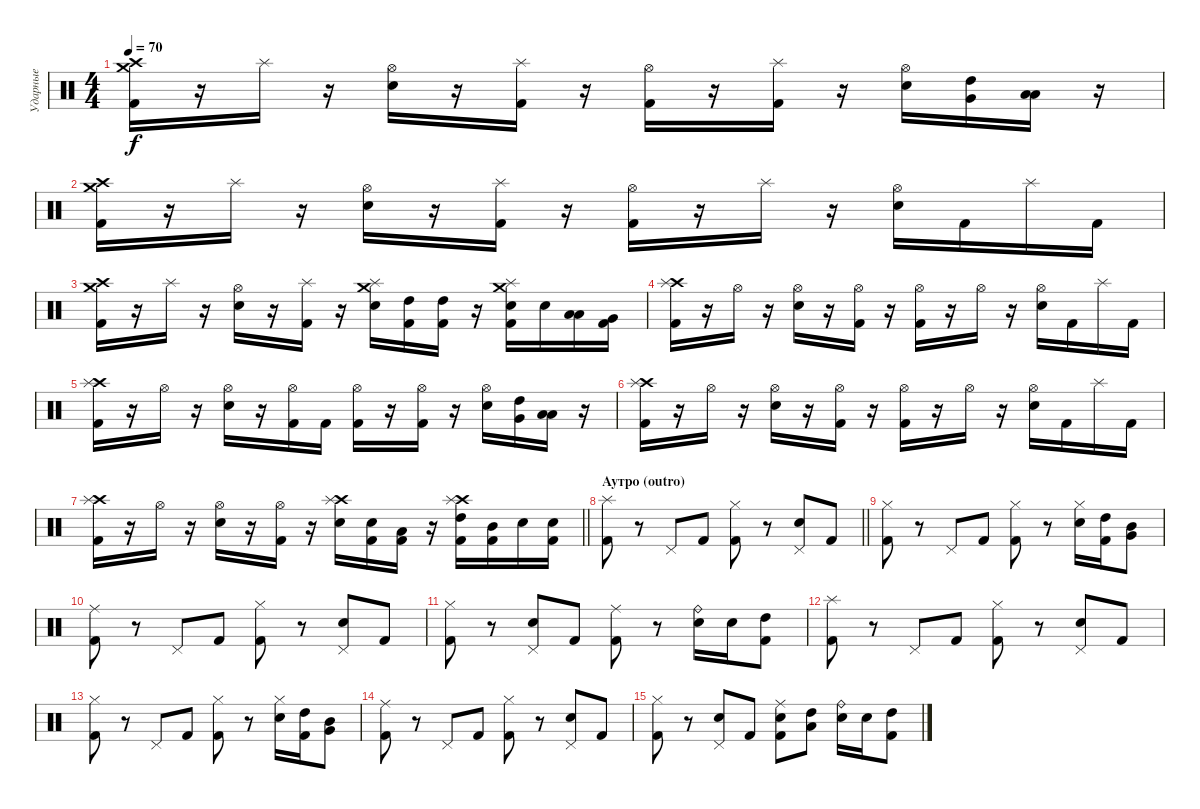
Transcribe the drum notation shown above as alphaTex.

\track ("Ударные" "Ударные") {instrument percussion}
\staff {score}
\articulation defaults
\ts (4 4)
\tempo 70
\clef neutral
\ks c
("Crash high (hit)" "Crash medium (hit)" "Kick (hit) 2").16{dy f} r.16 "Splash (hit)".16 r.16 ("Hi-Hat (open)" "Snare (hit) 2").16 r.16 ("Splash (hit)" "Kick (hit) 2").16 r.16 ("Hi-Hat (open)" "Kick (hit) 2").16 r.16 ("Splash (hit)" "Kick (hit) 2").16 r.16 ("Hi-Hat (open)" "Snare (hit) 2").16 ("High Tom (hit)" "Very Low Tom (hit)").16 ("Low Tom (hit)" "Low Floor Tom (hit)").16 r.16 |
("Crash high (hit)" "Crash medium (hit)" "Kick (hit) 2").16 r.16 "Splash (hit)".16 r.16 ("Hi-Hat (open)" "Snare (hit) 2").16 r.16 ("Splash (hit)" "Kick (hit) 2").16 r.16 ("Hi-Hat (open)" "Kick (hit) 2").16 r.16 "Splash (hit)".16 r.16 ("Hi-Hat (open)" "Snare (hit) 2").16 "Kick (hit) 2".16 "Splash (hit)".16 "Kick (hit) 2".16 |
("Crash high (hit)" "Crash medium (hit)" "Kick (hit) 2").16 r.16 "Splash (hit)".16 r.16 ("Hi-Hat (open)" "Snare (hit) 2").16 r.16 ("Splash (hit)" "Kick (hit) 2").16 r.16 ("Crash medium (hit)" "Splash (hit)" "Snare (hit) 2").16 ("High Tom (hit)" "Kick (hit) 2").16 ("High Tom (hit)" "Kick (hit) 2").16 r.16 ("Crash medium (hit)" "Splash (hit)" "Snare (hit) 2" "Kick (hit) 2").16 "Snare (hit) 2".16 ("Low Tom (hit)" "Low Floor Tom (hit)").16 ("Very Low Tom (hit)" "Kick (hit) 2").16 |
("Crash high (hit)" "Splash (hit)" "Kick (hit) 2").16 r.16 "Hi-Hat (open)".16 r.16 ("Hi-Hat (open)" "Snare (hit) 2").16 r.16 ("Hi-Hat (open)" "Kick (hit) 2").16 r.16 ("Hi-Hat (open)" "Kick (hit) 2").16 r.16 "Hi-Hat (open)".16 r.16 ("Hi-Hat (open)" "Snare (hit) 2").16 "Kick (hit) 2".16 "Splash (hit)".16 "Kick (hit) 2".16 |
("Crash high (hit)" "Splash (hit)" "Kick (hit) 2").16 r.16 "Hi-Hat (open)".16 r.16 ("Hi-Hat (open)" "Snare (hit) 2").16 r.16 ("Hi-Hat (open)" "Kick (hit) 2").16 "Kick (hit) 2".16 ("Hi-Hat (open)" "Kick (hit) 2").16 r.16 ("Hi-Hat (open)" "Kick (hit) 2").16 r.16 ("Hi-Hat (open)" "Snare (hit) 2").16 ("High Tom (hit)" "Very Low Tom (hit)").16 ("Low Tom (hit)" "Low Floor Tom (hit)").16 r.16 |
("Crash high (hit)" "Splash (hit)" "Kick (hit) 2").16 r.16 "Hi-Hat (open)".16 r.16 ("Hi-Hat (open)" "Snare (hit) 2").16 r.16 ("Hi-Hat (open)" "Kick (hit) 2").16 r.16 ("Hi-Hat (open)" "Kick (hit) 2").16 r.16 "Hi-Hat (open)".16 r.16 ("Hi-Hat (open)" "Snare (hit) 2").16 "Kick (hit) 2".16 "Splash (hit)".16 "Kick (hit) 2".16 |
\barLineRight lightlight
("Crash high (hit)" "Splash (hit)" "Kick (hit) 2").16 r.16 "Hi-Hat (open)".16 r.16 ("Hi-Hat (open)" "Snare (hit) 2").16 r.16 ("Hi-Hat (open)" "Kick (hit) 2").16 r.16 ("Crash high (hit)" "Splash (hit)" "Snare (hit) 2").16 ("Snare (hit) 2" "Kick (hit) 2").16 ("Low Tom (hit)" "Kick (hit) 2").16 r.16 ("Crash high (hit)" "Splash (hit)" "High Tom (hit)" "Kick (hit) 2").16 ("Mid Tom (hit)" "Kick (hit) 2").16 "Snare (hit) 2".16 ("Snare (hit) 2" "Kick (hit) 2").16 |
\section ("" "Аутро (outro)")
\barLineRight lightlight
("Splash (hit)" "Kick (hit) 2").8 r.8 "Pedal Hi-Hat (hit)".8 "Kick (hit) 2".8 ("Hi-Hat (closed)" "Kick (hit) 2").8 r.8 ("Pedal Hi-Hat (hit)" "Snare (hit) 2").8 "Kick (hit) 2".8 |
("Hi-Hat (closed)" "Kick (hit) 2").8 r.8 "Pedal Hi-Hat (hit)".8 "Kick (hit) 2".8 ("Hi-Hat (closed)" "Kick (hit) 2").8 r.8 ("Hi-Hat (closed)" "Snare (hit) 2").16 ("High Tom (hit)" "Kick (hit) 2").16 ("Mid Tom (hit)" "Very Low Tom (hit)").8 |
("Ride (middle)" "Kick (hit) 2").8 r.8 "Pedal Hi-Hat (hit)".8 "Kick (hit) 2".8 ("Hi-Hat (closed)" "Kick (hit) 2").8 r.8 ("Pedal Hi-Hat (hit)" "Snare (hit) 2").8 "Kick (hit) 2".8 |
("Hi-Hat (closed)" "Kick (hit) 2").8 r.8 ("Pedal Hi-Hat (hit)" "Snare (hit) 2").8 "Kick (hit) 2".8 ("Ride (middle)" "Kick (hit) 2").8 r.8 ("Ride (bell)" "Snare (hit) 2").16 "Snare (hit) 2".16 ("High Tom (hit)" "Kick (hit) 2").8 |
("Splash (hit)" "Kick (hit) 2").8 r.8 "Pedal Hi-Hat (hit)".8 "Kick (hit) 2".8 ("Hi-Hat (closed)" "Kick (hit) 2").8 r.8 ("Pedal Hi-Hat (hit)" "Snare (hit) 2").8 "Kick (hit) 2".8 |
("Hi-Hat (closed)" "Kick (hit) 2").8 r.8 "Pedal Hi-Hat (hit)".8 "Kick (hit) 2".8 ("Hi-Hat (closed)" "Kick (hit) 2").8 r.8 ("Hi-Hat (closed)" "Snare (hit) 2").16 ("High Tom (hit)" "Kick (hit) 2").16 ("Mid Tom (hit)" "Very Low Tom (hit)").8 |
("Ride (middle)" "Kick (hit) 2").8 r.8 "Pedal Hi-Hat (hit)".8 "Kick (hit) 2".8 ("Hi-Hat (closed)" "Kick (hit) 2").8 r.8 ("Pedal Hi-Hat (hit)" "Snare (hit) 2").8 "Kick (hit) 2".8 |
("Hi-Hat (closed)" "Kick (hit) 2").8 r.8 ("Pedal Hi-Hat (hit)" "Snare (hit) 2").8 "Kick (hit) 2".8 ("Ride (middle)" "Snare (hit) 2" "Kick (hit) 2").8 ("High Tom (hit)" "Low Tom (hit)").8 ("Ride (bell)" "Snare (hit) 2").16 "Snare (hit) 2".16 ("High Tom (hit)" "Kick (hit) 2").8
